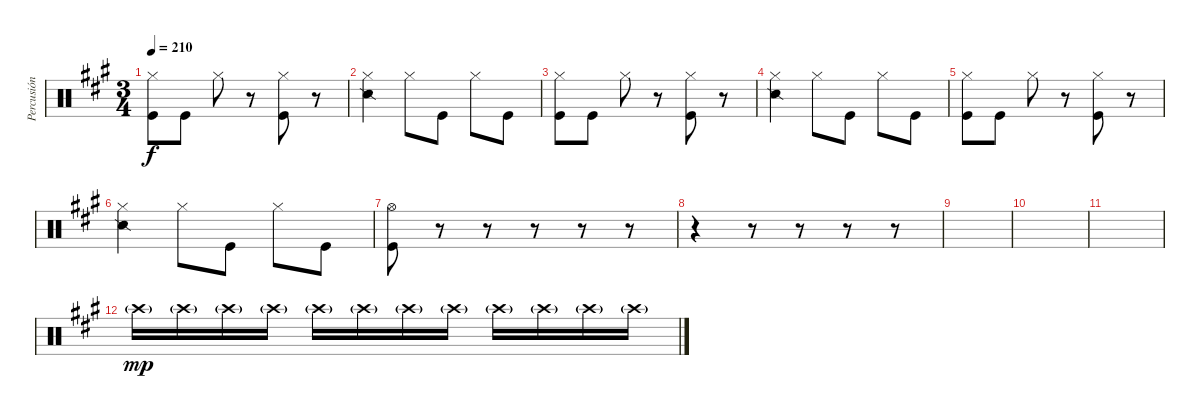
\track ("Percusión" "Percusión") {instrument percussion}
\staff {score}
\articulation defaults
\ts (3 4)
\tempo 210
\clef neutral
\ks a
("Hi-Hat (closed)" "Kick (hit)").8{dy f} "Kick (hit)".8 "Hi-Hat (closed)".8 r.8 ("Hi-Hat (closed)" "Kick (hit)").8 r.8 |
("Hi-Hat (closed)" "Snare (side stick) 2").4 "Hi-Hat (closed)".8 "Kick (hit)".8 "Hi-Hat (closed)".8 "Kick (hit)".8 |
("Hi-Hat (closed)" "Kick (hit)").8 "Kick (hit)".8 "Hi-Hat (closed)".8 r.8 ("Hi-Hat (closed)" "Kick (hit)").8 r.8 |
("Hi-Hat (closed)" "Snare (side stick) 2").4 "Hi-Hat (closed)".8 "Kick (hit)".8 "Hi-Hat (closed)".8 "Kick (hit)".8 |
("Hi-Hat (closed)" "Kick (hit)").8 "Kick (hit)".8 "Hi-Hat (closed)".8 r.8 ("Hi-Hat (closed)" "Kick (hit)").8 r.8 |
("Hi-Hat (closed)" "Snare (side stick) 2").4 "Hi-Hat (closed)".8 "Kick (hit)".8 "Hi-Hat (closed)".8 "Kick (hit)".8 |
("Hi-Hat (open)" "Kick (hit)").8 r.8 r.8 r.8 r.8 r.8 |
r.4 r.8 r.8 r.8 r.8 |
|
|
|
"Crash high (hit)"{g}.16{dy mp} "Crash high (hit)"{g}.16 "Crash high (hit)"{g}.16 "Crash high (hit)"{g}.16 "Crash high (hit)"{g}.16 "Crash high (hit)"{g}.16 "Crash high (hit)"{g}.16 "Crash high (hit)"{g}.16 "Crash high (hit)"{g}.16 "Crash high (hit)"{g}.16 "Crash high (hit)"{g}.16 "Crash high (hit)"{g}.16
